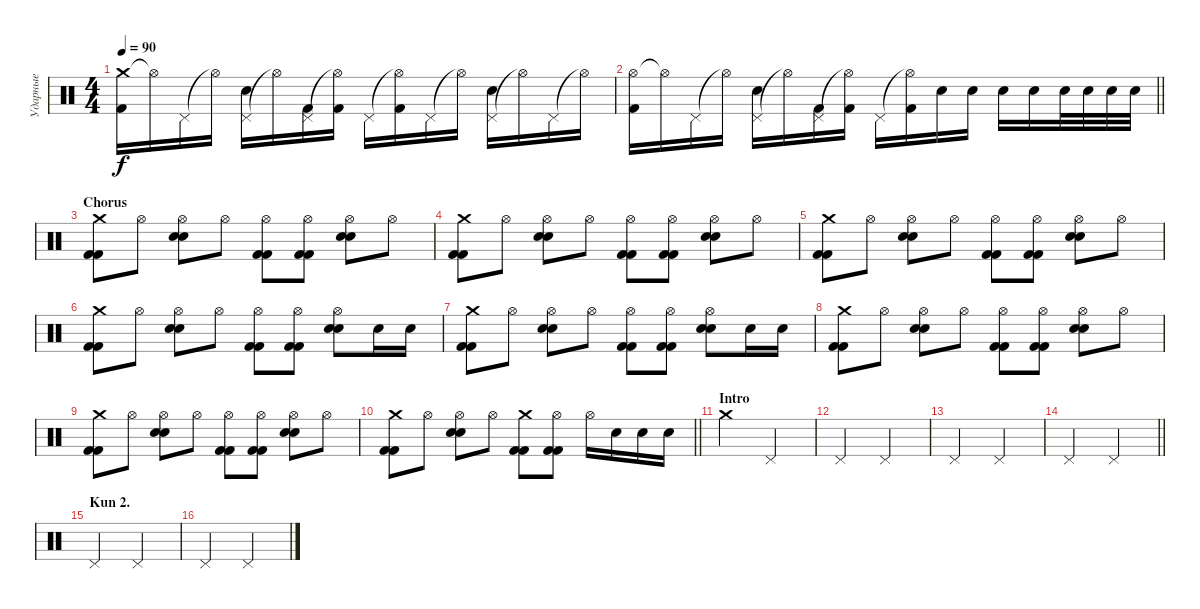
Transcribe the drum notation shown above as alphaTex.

\track ("Ударные" "Ударные") {instrument percussion}
\staff {score}
\articulation defaults
\ts (4 4)
\tempo 90
\clef neutral
\ks c
("Crash medium (hit)" "Kick (hit) 2").16{dy f} "Hi-Hat (open)"{t}.16 "Pedal Hi-Hat (hit)".16 "Hi-Hat (open)"{t}.16 ("Pedal Hi-Hat (hit)" "Snare (hit) 2").16 "Hi-Hat (open)"{t}.16 ("Pedal Hi-Hat (hit)" "Kick (hit) 2").16 ("Hi-Hat (open)"{t} "Kick (hit) 2").16 "Pedal Hi-Hat (hit)".16 ("Hi-Hat (open)"{t} "Kick (hit) 2").16 "Pedal Hi-Hat (hit)".16 "Hi-Hat (open)"{t}.16 ("Pedal Hi-Hat (hit)" "Snare (hit) 2").16 "Hi-Hat (open)"{t}.16 "Pedal Hi-Hat (hit)".16 "Hi-Hat (open)"{t}.16 |
\barLineRight lightlight
("Hi-Hat (open)" "Kick (hit) 2").16 "Hi-Hat (open)"{t}.16 "Pedal Hi-Hat (hit)".16 "Hi-Hat (open)"{t}.16 ("Pedal Hi-Hat (hit)" "Snare (hit) 2").16 "Hi-Hat (open)"{t}.16 ("Pedal Hi-Hat (hit)" "Kick (hit) 2").16 ("Hi-Hat (open)"{t} "Kick (hit) 2").16 "Pedal Hi-Hat (hit)".16 ("Hi-Hat (open)"{t} "Kick (hit) 2").16 "Snare (hit) 2".16 "Snare (hit) 2".16 "Snare (hit) 2".16 "Snare (hit) 2".16 "Snare (hit) 2".32 "Snare (hit) 2".32 "Snare (hit) 2".32 "Snare (hit) 2".32 |
\section ("" "Chorus")
("Crash medium (hit)" "Kick (hit) 2" "Kick (hit) 2").8 "Hi-Hat (open)".8 ("Hi-Hat (open)" "Snare (hit) 2" "Snare (hit) 2").8 "Hi-Hat (open)".8 ("Hi-Hat (open)" "Kick (hit) 2" "Kick (hit) 2").8 ("Hi-Hat (open)" "Kick (hit) 2" "Kick (hit) 2").8 ("Hi-Hat (open)" "Snare (hit) 2" "Snare (hit) 2").8 "Hi-Hat (open)".8 |
("Crash medium (hit)" "Kick (hit) 2" "Kick (hit) 2").8 "Hi-Hat (open)".8 ("Hi-Hat (open)" "Snare (hit) 2" "Snare (hit) 2").8 "Hi-Hat (open)".8 ("Hi-Hat (open)" "Kick (hit) 2" "Kick (hit) 2").8 ("Hi-Hat (open)" "Kick (hit) 2" "Kick (hit) 2").8 ("Hi-Hat (open)" "Snare (hit) 2" "Snare (hit) 2").8 "Hi-Hat (open)".8 |
("Crash medium (hit)" "Kick (hit) 2" "Kick (hit) 2").8 "Hi-Hat (open)".8 ("Hi-Hat (open)" "Snare (hit) 2" "Snare (hit) 2").8 "Hi-Hat (open)".8 ("Hi-Hat (open)" "Kick (hit) 2" "Kick (hit) 2").8 ("Hi-Hat (open)" "Kick (hit) 2" "Kick (hit) 2").8 ("Hi-Hat (open)" "Snare (hit) 2" "Snare (hit) 2").8 "Hi-Hat (open)".8 |
("Crash medium (hit)" "Kick (hit) 2" "Kick (hit) 2").8 "Hi-Hat (open)".8 ("Hi-Hat (open)" "Snare (hit) 2" "Snare (hit) 2").8 "Hi-Hat (open)".8 ("Hi-Hat (open)" "Kick (hit) 2" "Kick (hit) 2").8 ("Hi-Hat (open)" "Kick (hit) 2" "Kick (hit) 2").8 ("Hi-Hat (open)" "Snare (hit) 2" "Snare (hit) 2").8 "Snare (hit) 2".16 "Snare (hit) 2".16 |
("Crash medium (hit)" "Kick (hit) 2" "Kick (hit) 2").8 "Hi-Hat (open)".8 ("Hi-Hat (open)" "Snare (hit) 2" "Snare (hit) 2").8 "Hi-Hat (open)".8 ("Hi-Hat (open)" "Kick (hit) 2" "Kick (hit) 2").8 ("Hi-Hat (open)" "Kick (hit) 2" "Kick (hit) 2").8 ("Hi-Hat (open)" "Snare (hit) 2" "Snare (hit) 2").8 "Snare (hit) 2".16 "Snare (hit) 2".16 |
("Crash medium (hit)" "Kick (hit) 2" "Kick (hit) 2").8 "Hi-Hat (open)".8 ("Hi-Hat (open)" "Snare (hit) 2" "Snare (hit) 2").8 "Hi-Hat (open)".8 ("Hi-Hat (open)" "Kick (hit) 2" "Kick (hit) 2").8 ("Hi-Hat (open)" "Kick (hit) 2" "Kick (hit) 2").8 ("Hi-Hat (open)" "Snare (hit) 2" "Snare (hit) 2").8 "Hi-Hat (open)".8 |
("Crash medium (hit)" "Kick (hit) 2" "Kick (hit) 2").8 "Hi-Hat (open)".8 ("Hi-Hat (open)" "Snare (hit) 2" "Snare (hit) 2").8 "Hi-Hat (open)".8 ("Hi-Hat (open)" "Kick (hit) 2" "Kick (hit) 2").8 ("Hi-Hat (open)" "Kick (hit) 2" "Kick (hit) 2").8 ("Hi-Hat (open)" "Snare (hit) 2" "Snare (hit) 2").8 "Hi-Hat (open)".8 |
\barLineRight lightlight
("Crash medium (hit)" "Kick (hit) 2" "Kick (hit) 2").8 "Hi-Hat (open)".8 ("Hi-Hat (open)" "Snare (hit) 2" "Snare (hit) 2").8 "Hi-Hat (open)".8 ("Crash medium (hit)" "Kick (hit) 2" "Kick (hit) 2").8 ("Hi-Hat (open)" "Kick (hit) 2" "Kick (hit) 2").8 "Hi-Hat (open)".16 "Snare (hit) 2".16 "Snare (hit) 2".16 "Snare (hit) 2".16 |
\section ("" "Intro")
"Crash medium (hit)".2 "Pedal Hi-Hat (hit)".2 |
"Pedal Hi-Hat (hit)".2 "Pedal Hi-Hat (hit)".2 |
"Pedal Hi-Hat (hit)".2 "Pedal Hi-Hat (hit)".2 |
\barLineRight lightlight "Pedal Hi-Hat (hit)".2 "Pedal Hi-Hat (hit)".2
|
\section ("" "Kun 2. ")
"Pedal Hi-Hat (hit)".2 "Pedal Hi-Hat (hit)".2 |
"Pedal Hi-Hat (hit)".2 "Pedal Hi-Hat (hit)".2
